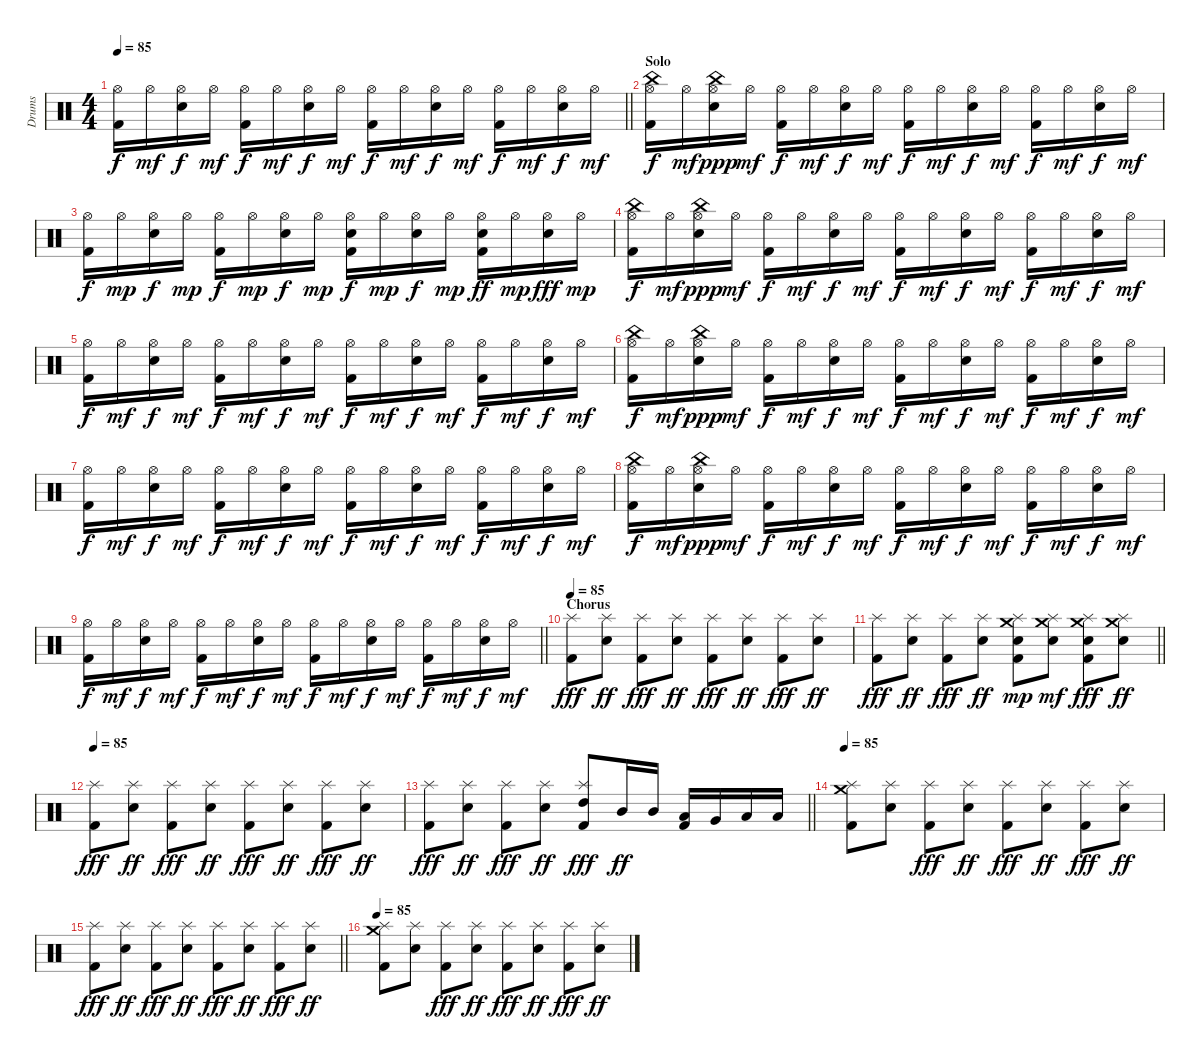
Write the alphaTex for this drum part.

\track ("Drums" "Drums") {instrument percussion}
\staff {score}
\articulation defaults
\ts (4 4)
\tempo 85
\clef neutral
\barLineRight lightlight
\ks aminor
("Hi-Hat (open)" "Kick (hit) 2").16{dy f} "Hi-Hat (open)".16{dy mf} ("Hi-Hat (open)" "Snare (hit) 2").16{dy f} "Hi-Hat (open)".16{dy mf} ("Hi-Hat (open)" "Kick (hit) 2").16{dy f} "Hi-Hat (open)".16{dy mf} ("Hi-Hat (open)" "Snare (hit) 2").16{dy f} "Hi-Hat (open)".16{dy mf} ("Hi-Hat (open)" "Kick (hit) 2").16{dy f} "Hi-Hat (open)".16{dy mf} ("Hi-Hat (open)" "Snare (hit) 2").16{dy f} "Hi-Hat (open)".16{dy mf} ("Hi-Hat (open)" "Kick (hit) 2").16{dy f} "Hi-Hat (open)".16{dy mf} ("Hi-Hat (open)" "Snare (hit) 2").16{dy f} "Hi-Hat (open)".16{dy mf} |
\section ("" "Solo")
("Hi-Hat (open)" "Kick (hit) 2" "China (hit)").16{dy f} "Hi-Hat (open)".16{dy mf} ("Hi-Hat (open)" "Snare (hit) 2" "China (hit)").16{dy ppp} "Hi-Hat (open)".16{dy mf} ("Hi-Hat (open)" "Kick (hit) 2").16{dy f} "Hi-Hat (open)".16{dy mf} ("Hi-Hat (open)" "Snare (hit) 2").16{dy f} "Hi-Hat (open)".16{dy mf} ("Hi-Hat (open)" "Kick (hit) 2").16{dy f} "Hi-Hat (open)".16{dy mf} ("Hi-Hat (open)" "Snare (hit) 2").16{dy f} "Hi-Hat (open)".16{dy mf} ("Hi-Hat (open)" "Kick (hit) 2").16{dy f} "Hi-Hat (open)".16{dy mf} ("Hi-Hat (open)" "Snare (hit) 2").16{dy f} "Hi-Hat (open)".16{dy mf} |
("Hi-Hat (open)" "Kick (hit) 2").16{dy f} "Hi-Hat (open)".16{dy mp} ("Hi-Hat (open)" "Snare (hit) 2").16{dy f} "Hi-Hat (open)".16{dy mp} ("Hi-Hat (open)" "Kick (hit) 2").16{dy f} "Hi-Hat (open)".16{dy mp} ("Hi-Hat (open)" "Snare (hit) 2").16{dy f} "Hi-Hat (open)".16{dy mp} ("Hi-Hat (open)" "Kick (hit) 2" "Snare (hit) 2").16{dy f} "Hi-Hat (open)".16{dy mp} ("Hi-Hat (open)" "Snare (hit) 2").16{dy f} "Hi-Hat (open)".16{dy mp} ("Hi-Hat (open)" "Kick (hit) 2" "Snare (hit) 2").16{dy ff} "Hi-Hat (open)".16{dy mp} ("Hi-Hat (open)" "Snare (hit) 2").16{dy fff} "Hi-Hat (open)".16{dy mp} |
("Hi-Hat (open)" "Kick (hit) 2" "China (hit)").16{dy f} "Hi-Hat (open)".16{dy mf} ("Hi-Hat (open)" "Snare (hit) 2" "China (hit)").16{dy ppp} "Hi-Hat (open)".16{dy mf} ("Hi-Hat (open)" "Kick (hit) 2").16{dy f} "Hi-Hat (open)".16{dy mf} ("Hi-Hat (open)" "Snare (hit) 2").16{dy f} "Hi-Hat (open)".16{dy mf} ("Hi-Hat (open)" "Kick (hit) 2").16{dy f} "Hi-Hat (open)".16{dy mf} ("Hi-Hat (open)" "Snare (hit) 2").16{dy f} "Hi-Hat (open)".16{dy mf} ("Hi-Hat (open)" "Kick (hit) 2").16{dy f} "Hi-Hat (open)".16{dy mf} ("Hi-Hat (open)" "Snare (hit) 2").16{dy f} "Hi-Hat (open)".16{dy mf} |
("Hi-Hat (open)" "Kick (hit) 2").16{dy f} "Hi-Hat (open)".16{dy mf} ("Hi-Hat (open)" "Snare (hit) 2").16{dy f} "Hi-Hat (open)".16{dy mf} ("Hi-Hat (open)" "Kick (hit) 2").16{dy f} "Hi-Hat (open)".16{dy mf} ("Hi-Hat (open)" "Snare (hit) 2").16{dy f} "Hi-Hat (open)".16{dy mf} ("Hi-Hat (open)" "Kick (hit) 2").16{dy f} "Hi-Hat (open)".16{dy mf} ("Hi-Hat (open)" "Snare (hit) 2").16{dy f} "Hi-Hat (open)".16{dy mf} ("Hi-Hat (open)" "Kick (hit) 2").16{dy f} "Hi-Hat (open)".16{dy mf} ("Hi-Hat (open)" "Snare (hit) 2").16{dy f} "Hi-Hat (open)".16{dy mf} |
("Hi-Hat (open)" "Kick (hit) 2" "China (hit)").16{dy f} "Hi-Hat (open)".16{dy mf} ("Hi-Hat (open)" "Snare (hit) 2" "China (hit)").16{dy ppp} "Hi-Hat (open)".16{dy mf} ("Hi-Hat (open)" "Kick (hit) 2").16{dy f} "Hi-Hat (open)".16{dy mf} ("Hi-Hat (open)" "Snare (hit) 2").16{dy f} "Hi-Hat (open)".16{dy mf} ("Hi-Hat (open)" "Kick (hit) 2").16{dy f} "Hi-Hat (open)".16{dy mf} ("Hi-Hat (open)" "Snare (hit) 2").16{dy f} "Hi-Hat (open)".16{dy mf} ("Hi-Hat (open)" "Kick (hit) 2").16{dy f} "Hi-Hat (open)".16{dy mf} ("Hi-Hat (open)" "Snare (hit) 2").16{dy f} "Hi-Hat (open)".16{dy mf} |
("Hi-Hat (open)" "Kick (hit) 2").16{dy f} "Hi-Hat (open)".16{dy mf} ("Hi-Hat (open)" "Snare (hit) 2").16{dy f} "Hi-Hat (open)".16{dy mf} ("Hi-Hat (open)" "Kick (hit) 2").16{dy f} "Hi-Hat (open)".16{dy mf} ("Hi-Hat (open)" "Snare (hit) 2").16{dy f} "Hi-Hat (open)".16{dy mf} ("Hi-Hat (open)" "Kick (hit) 2").16{dy f} "Hi-Hat (open)".16{dy mf} ("Hi-Hat (open)" "Snare (hit) 2").16{dy f} "Hi-Hat (open)".16{dy mf} ("Hi-Hat (open)" "Kick (hit) 2").16{dy f} "Hi-Hat (open)".16{dy mf} ("Hi-Hat (open)" "Snare (hit) 2").16{dy f} "Hi-Hat (open)".16{dy mf} |
("Hi-Hat (open)" "Kick (hit) 2" "China (hit)").16{dy f} "Hi-Hat (open)".16{dy mf} ("Hi-Hat (open)" "Snare (hit) 2" "China (hit)").16{dy ppp} "Hi-Hat (open)".16{dy mf} ("Hi-Hat (open)" "Kick (hit) 2").16{dy f} "Hi-Hat (open)".16{dy mf} ("Hi-Hat (open)" "Snare (hit) 2").16{dy f} "Hi-Hat (open)".16{dy mf} ("Hi-Hat (open)" "Kick (hit) 2").16{dy f} "Hi-Hat (open)".16{dy mf} ("Hi-Hat (open)" "Snare (hit) 2").16{dy f} "Hi-Hat (open)".16{dy mf} ("Hi-Hat (open)" "Kick (hit) 2").16{dy f} "Hi-Hat (open)".16{dy mf} ("Hi-Hat (open)" "Snare (hit) 2").16{dy f} "Hi-Hat (open)".16{dy mf} |
\barLineRight lightlight
("Hi-Hat (open)" "Kick (hit) 2").16{dy f} "Hi-Hat (open)".16{dy mf} ("Hi-Hat (open)" "Snare (hit) 2").16{dy f} "Hi-Hat (open)".16{dy mf} ("Hi-Hat (open)" "Kick (hit) 2").16{dy f} "Hi-Hat (open)".16{dy mf} ("Hi-Hat (open)" "Snare (hit) 2").16{dy f} "Hi-Hat (open)".16{dy mf} ("Hi-Hat (open)" "Kick (hit) 2").16{dy f} "Hi-Hat (open)".16{dy mf} ("Hi-Hat (open)" "Snare (hit) 2").16{dy f} "Hi-Hat (open)".16{dy mf} ("Hi-Hat (open)" "Kick (hit) 2").16{dy f} "Hi-Hat (open)".16{dy mf} ("Hi-Hat (open)" "Snare (hit) 2").16{dy f} "Hi-Hat (open)".16{dy mf} |
\section ("" "Chorus")
\tempo 85
("Splash (hit)" "Kick (hit) 2").8{dy fff volume 12} ("Splash (hit)" "Snare (hit) 2").8{dy ff} ("Splash (hit)" "Kick (hit) 2").8{dy fff} ("Splash (hit)" "Snare (hit) 2").8{dy ff} ("Splash (hit)" "Kick (hit) 2").8{dy fff} ("Splash (hit)" "Snare (hit) 2").8{dy ff} ("Splash (hit)" "Kick (hit) 2").8{dy fff} ("Splash (hit)" "Snare (hit) 2").8{dy ff} |
\barLineRight lightlight
("Splash (hit)" "Kick (hit) 2").8{dy fff} ("Splash (hit)" "Snare (hit) 2").8{dy ff} ("Splash (hit)" "Kick (hit) 2").8{dy fff} ("Splash (hit)" "Snare (hit) 2").8{dy ff} ("Splash (hit)" "Kick (hit) 2" "Snare (hit) 2" "Crash medium (hit)").8{dy mp} ("Splash (hit)" "Snare (hit) 2" "Crash medium (hit)").8{dy mf} ("Splash (hit)" "Kick (hit) 2" "Snare (hit) 2" "Crash medium (hit)").8{dy fff} ("Splash (hit)" "Snare (hit) 2" "Crash medium (hit)").8{dy ff} |
\tempo 85
("Splash (hit)" "Kick (hit) 2").8{dy fff} ("Splash (hit)" "Snare (hit) 2").8{dy ff} ("Splash (hit)" "Kick (hit) 2").8{dy fff} ("Splash (hit)" "Snare (hit) 2").8{dy ff} ("Splash (hit)" "Kick (hit) 2").8{dy fff} ("Splash (hit)" "Snare (hit) 2").8{dy ff} ("Splash (hit)" "Kick (hit) 2").8{dy fff} ("Splash (hit)" "Snare (hit) 2").8{dy ff} |
\barLineRight lightlight
("Splash (hit)" "Kick (hit) 2").8{dy fff} ("Splash (hit)" "Snare (hit) 2").8{dy ff} ("Splash (hit)" "Kick (hit) 2").8{dy fff} ("Splash (hit)" "Snare (hit) 2").8{dy ff} ("Splash (hit)" "Kick (hit) 2" "High Tom (hit)").8{dy fff} "Mid Tom (hit)".16{dy ff} "Mid Tom (hit)".16 ("Kick (hit) 2" "Low Tom (hit)").16 "Very Low Tom (hit)".16 "Low Floor Tom (hit)".16 "Low Floor Tom (hit)".16 |
\tempo 85
("Splash (hit)" "Kick (hit) 2" "Crash medium (hit)").8 ("Splash (hit)" "Snare (hit) 2").8 ("Splash (hit)" "Kick (hit) 2").8{dy fff} ("Splash (hit)" "Snare (hit) 2").8{dy ff} ("Splash (hit)" "Kick (hit) 2").8{dy fff} ("Splash (hit)" "Snare (hit) 2").8{dy ff} ("Splash (hit)" "Kick (hit) 2").8{dy fff} ("Splash (hit)" "Snare (hit) 2").8{dy ff} |
\barLineRight lightlight
("Splash (hit)" "Kick (hit) 2").8{dy fff} ("Splash (hit)" "Snare (hit) 2").8{dy ff} ("Splash (hit)" "Kick (hit) 2").8{dy fff} ("Splash (hit)" "Snare (hit) 2").8{dy ff} ("Splash (hit)" "Kick (hit) 2").8{dy fff} ("Splash (hit)" "Snare (hit) 2").8{dy ff} ("Splash (hit)" "Kick (hit) 2").8{dy fff} ("Splash (hit)" "Snare (hit) 2").8{dy ff} |
\tempo 85
("Splash (hit)" "Kick (hit) 2" "Crash medium (hit)").8 ("Splash (hit)" "Snare (hit) 2").8 ("Splash (hit)" "Kick (hit) 2").8{dy fff} ("Splash (hit)" "Snare (hit) 2").8{dy ff} ("Splash (hit)" "Kick (hit) 2").8{dy fff} ("Splash (hit)" "Snare (hit) 2").8{dy ff} ("Splash (hit)" "Kick (hit) 2").8{dy fff} ("Splash (hit)" "Snare (hit) 2").8{dy ff}
